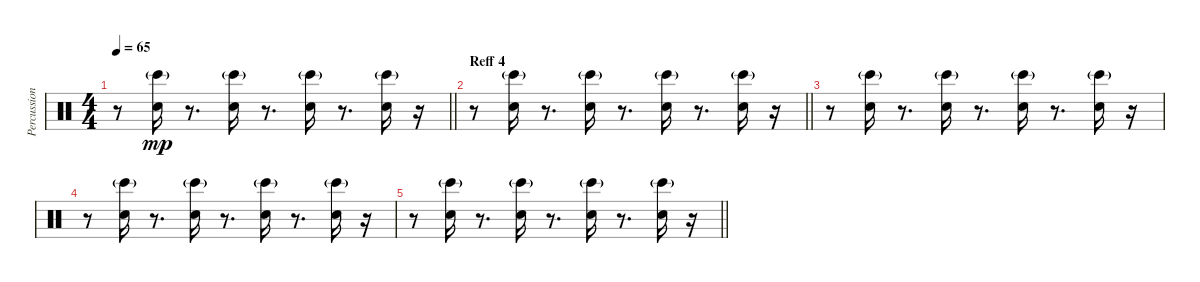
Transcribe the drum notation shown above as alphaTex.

\track ("Percussion 2 (Clap)" "Percussion") {instrument percussion}
\staff {score}
\articulation defaults
\ts (4 4)
\tempo 65
\clef neutral
\barLineRight lightlight
\ks c
r.8{dy mp} ("Hand Clap (hit)" "Bongo High (hit)"{g}).16 r.8{d} ("Hand Clap (hit)" "Bongo High (hit)"{g}).16 r.8{d} ("Hand Clap (hit)" "Bongo High (hit)"{g}).16 r.8{d} ("Hand Clap (hit)" "Bongo High (hit)"{g}).16 r.16 |
\section ("" "Reff 4")
\barLineRight lightlight
r.8 ("Hand Clap (hit)" "Bongo High (hit)"{g}).16 r.8{d} ("Hand Clap (hit)" "Bongo High (hit)"{g}).16 r.8{d} ("Hand Clap (hit)" "Bongo High (hit)"{g}).16 r.8{d} ("Hand Clap (hit)" "Bongo High (hit)"{g}).16 r.16 |
r.8 ("Hand Clap (hit)" "Bongo High (hit)"{g}).16 r.8{d} ("Hand Clap (hit)" "Bongo High (hit)"{g}).16 r.8{d} ("Hand Clap (hit)" "Bongo High (hit)"{g}).16 r.8{d} ("Hand Clap (hit)" "Bongo High (hit)"{g}).16 r.16 |
r.8 ("Hand Clap (hit)" "Bongo High (hit)"{g}).16 r.8{d} ("Hand Clap (hit)" "Bongo High (hit)"{g}).16 r.8{d} ("Hand Clap (hit)" "Bongo High (hit)"{g}).16 r.8{d} ("Hand Clap (hit)" "Bongo High (hit)"{g}).16 r.16 |
\barLineRight lightlight
r.8 ("Hand Clap (hit)" "Bongo High (hit)"{g}).16 r.8{d} ("Hand Clap (hit)" "Bongo High (hit)"{g}).16 r.8{d} ("Hand Clap (hit)" "Bongo High (hit)"{g}).16 r.8{d} ("Hand Clap (hit)" "Bongo High (hit)"{g}).16 r.16
